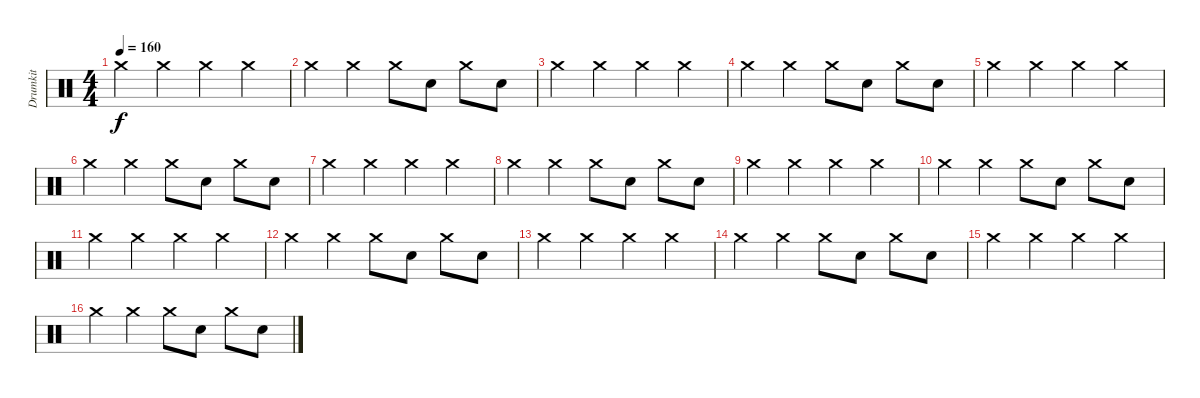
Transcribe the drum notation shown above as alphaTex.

\track ("Drumkit" "Drumkit") {instrument percussion}
\staff {score}
\articulation defaults
\ts (4 4)
\tempo 160
\clef neutral
\ks c "Crash medium (hit)".4{dy f} "Crash medium (hit)".4 "Crash medium (hit)".4 "Crash medium (hit)".4
|
"Crash medium (hit)".4 "Crash medium (hit)".4 "Crash medium (hit)".8 "Snare (hit) 2".8 "Crash medium (hit)".8 "Snare (hit) 2".8 |
"Crash medium (hit)".4 "Crash medium (hit)".4 "Crash medium (hit)".4 "Crash medium (hit)".4 |
"Crash medium (hit)".4 "Crash medium (hit)".4 "Crash medium (hit)".8 "Snare (hit) 2".8 "Crash medium (hit)".8 "Snare (hit) 2".8 |
"Crash medium (hit)".4 "Crash medium (hit)".4 "Crash medium (hit)".4 "Crash medium (hit)".4 |
"Crash medium (hit)".4 "Crash medium (hit)".4 "Crash medium (hit)".8 "Snare (hit) 2".8 "Crash medium (hit)".8 "Snare (hit) 2".8 |
"Crash medium (hit)".4 "Crash medium (hit)".4 "Crash medium (hit)".4 "Crash medium (hit)".4 |
"Crash medium (hit)".4 "Crash medium (hit)".4 "Crash medium (hit)".8 "Snare (hit) 2".8 "Crash medium (hit)".8 "Snare (hit) 2".8 |
"Crash medium (hit)".4 "Crash medium (hit)".4 "Crash medium (hit)".4 "Crash medium (hit)".4 |
"Crash medium (hit)".4 "Crash medium (hit)".4 "Crash medium (hit)".8 "Snare (hit) 2".8 "Crash medium (hit)".8 "Snare (hit) 2".8 |
"Crash medium (hit)".4 "Crash medium (hit)".4 "Crash medium (hit)".4 "Crash medium (hit)".4 |
"Crash medium (hit)".4 "Crash medium (hit)".4 "Crash medium (hit)".8 "Snare (hit) 2".8 "Crash medium (hit)".8 "Snare (hit) 2".8 |
"Crash medium (hit)".4 "Crash medium (hit)".4 "Crash medium (hit)".4 "Crash medium (hit)".4 |
"Crash medium (hit)".4 "Crash medium (hit)".4 "Crash medium (hit)".8 "Snare (hit) 2".8 "Crash medium (hit)".8 "Snare (hit) 2".8 |
"Crash medium (hit)".4 "Crash medium (hit)".4 "Crash medium (hit)".4 "Crash medium (hit)".4 |
"Crash medium (hit)".4 "Crash medium (hit)".4 "Crash medium (hit)".8 "Snare (hit) 2".8 "Crash medium (hit)".8 "Snare (hit) 2".8
